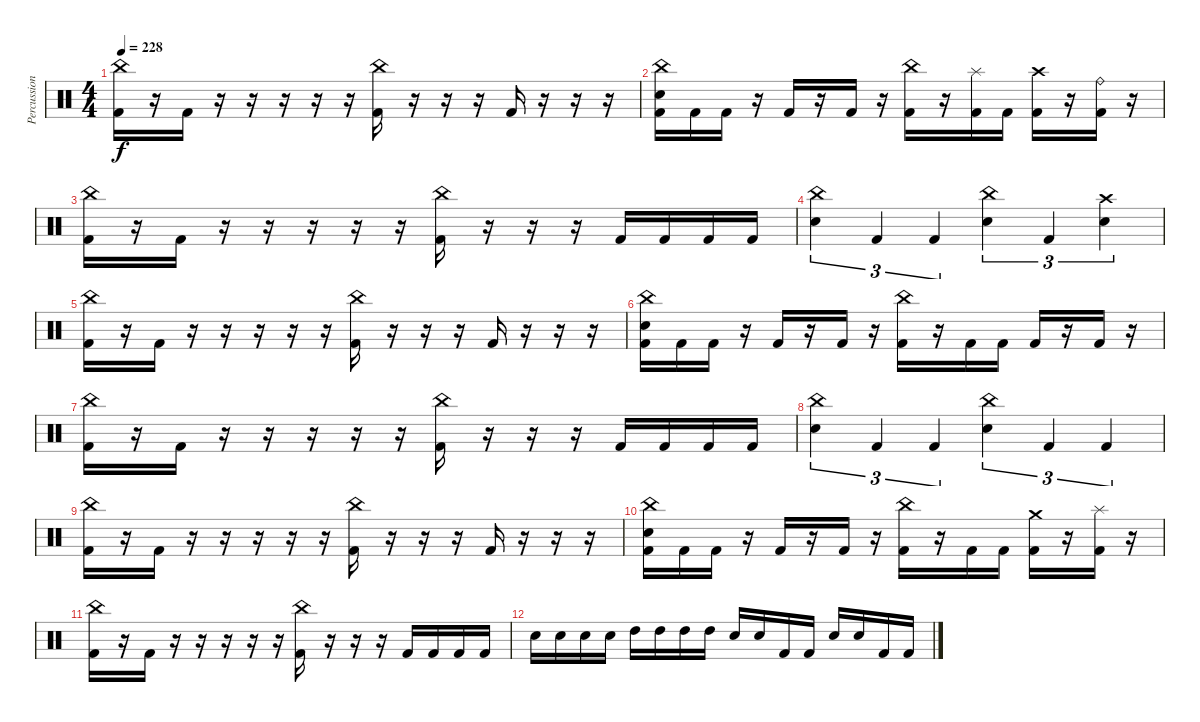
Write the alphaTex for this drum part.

\track ("Percussion" "Percussion") {instrument percussion}
\staff {score}
\articulation defaults
\ts (4 4)
\tempo 228
\clef neutral
\ks c
("China (hit)" "Kick (hit) 2").16{dy f} r.16 "Kick (hit) 2".16 r.16 r.16 r.16 r.16 r.16 ("China (hit)" "Kick (hit) 2").16 r.16 r.16 r.16 "Kick (hit) 2".16 r.16 r.16 r.16 |
("China (hit)" "Electric Snare (hit)" "Kick (hit) 2").16 "Kick (hit) 2".16 "Kick (hit) 2".16 r.16 "Kick (hit) 2".16 r.16 "Kick (hit) 2".16 r.16 ("China (hit)" "Kick (hit) 2").16 r.16 ("Splash (hit)" "Kick (hit) 2").16 "Kick (hit) 2".16 ("Crash high (hit)" "Kick (hit) 2").16 r.16 ("Ride (bell)" "Kick (hit) 2").16 r.16 |
("China (hit)" "Kick (hit) 2").16 r.16 "Kick (hit) 2".16 r.16 r.16 r.16 r.16 r.16 ("China (hit)" "Kick (hit) 2").16 r.16 r.16 r.16 "Kick (hit) 2".16 "Kick (hit) 2".16 "Kick (hit) 2".16 "Kick (hit) 2".16 |
("China (hit)" "Electric Snare (hit)").4{tu (3 2)} "Kick (hit) 2".4{tu (3 2)} "Kick (hit) 2".4{tu (3 2)} ("China (hit)" "Electric Snare (hit)").4{tu (3 2)} "Kick (hit) 2".4{tu (3 2)} ("Crash high (hit)" "Electric Snare (hit)").4{tu (3 2)} |
("China (hit)" "Kick (hit) 2").16 r.16 "Kick (hit) 2".16 r.16 r.16 r.16 r.16 r.16 ("China (hit)" "Kick (hit) 2").16 r.16 r.16 r.16 "Kick (hit) 2".16 r.16 r.16 r.16 |
("China (hit)" "Electric Snare (hit)" "Kick (hit) 2").16 "Kick (hit) 2".16 "Kick (hit) 2".16 r.16 "Kick (hit) 2".16 r.16 "Kick (hit) 2".16 r.16 ("China (hit)" "Kick (hit) 2").16 r.16 "Kick (hit) 2".16 "Kick (hit) 2".16 "Kick (hit) 2".16 r.16 "Kick (hit) 2".16 r.16 |
("China (hit)" "Kick (hit) 2").16 r.16 "Kick (hit) 2".16 r.16 r.16 r.16 r.16 r.16 ("China (hit)" "Kick (hit) 2").16 r.16 r.16 r.16 "Kick (hit) 2".16 "Kick (hit) 2".16 "Kick (hit) 2".16 "Kick (hit) 2".16 |
("China (hit)" "Electric Snare (hit)").4{tu (3 2)} "Kick (hit) 2".4{tu (3 2)} "Kick (hit) 2".4{tu (3 2)} ("China (hit)" "Electric Snare (hit)").4{tu (3 2)} "Kick (hit) 2".4{tu (3 2)} "Kick (hit) 2".4{tu (3 2)} |
("China (hit)" "Kick (hit) 2").16 r.16 "Kick (hit) 2".16 r.16 r.16 r.16 r.16 r.16 ("China (hit)" "Kick (hit) 2").16 r.16 r.16 r.16 "Kick (hit) 2".16 r.16 r.16 r.16 |
("China (hit)" "Electric Snare (hit)" "Kick (hit) 2").16 "Kick (hit) 2".16 "Kick (hit) 2".16 r.16 "Kick (hit) 2".16 r.16 "Kick (hit) 2".16 r.16 ("China (hit)" "Kick (hit) 2").16 r.16 "Kick (hit) 2".16 "Kick (hit) 2".16 ("Crash medium (hit)" "Kick (hit) 2").16 r.16 ("Splash (hit)" "Kick (hit) 2").16 r.16 |
("China (hit)" "Kick (hit) 2").16 r.16 "Kick (hit) 2".16 r.16 r.16 r.16 r.16 r.16 ("China (hit)" "Kick (hit) 2").16 r.16 r.16 r.16 "Kick (hit) 2".16 "Kick (hit) 2".16 "Kick (hit) 2".16 "Kick (hit) 2".16 |
"Electric Snare (hit)".16 "Electric Snare (hit)".16 "Electric Snare (hit)".16 "Electric Snare (hit)".16 "High Tom (hit)".16 "High Tom (hit)".16 "High Tom (hit)".16 "High Tom (hit)".16 "Electric Snare (hit)".16 "Electric Snare (hit)".16 "Kick (hit) 2".16 "Kick (hit) 2".16 "Electric Snare (hit)".16 "Electric Snare (hit)".16 "Kick (hit) 2".16 "Kick (hit) 2".16
